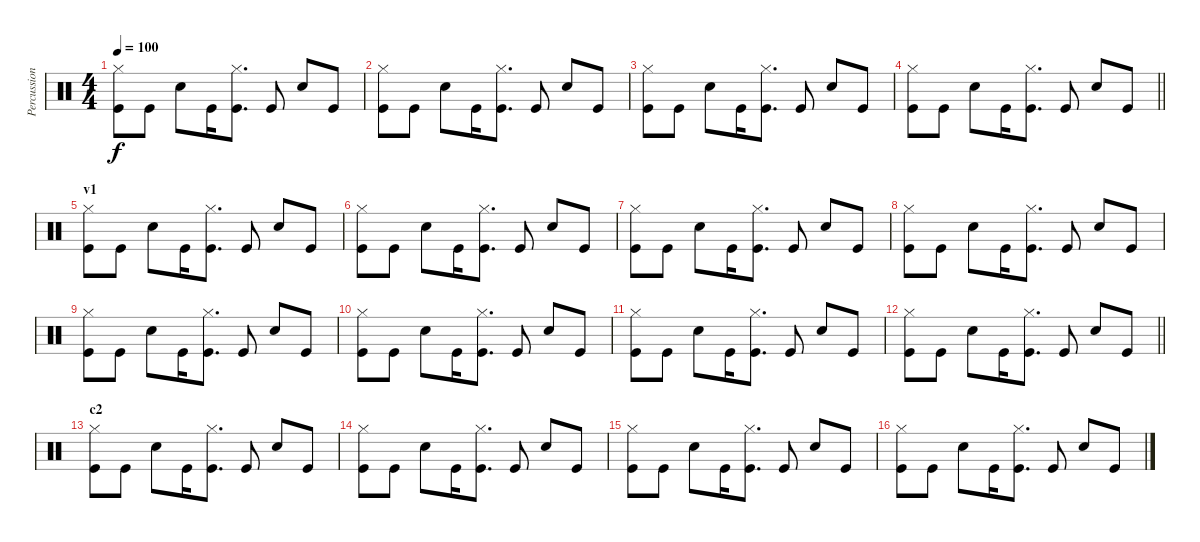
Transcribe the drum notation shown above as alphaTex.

\track ("Percussion" "Percussion") {instrument percussion}
\staff {score}
\articulation defaults
\ts (4 4)
\tempo 100
\clef neutral
\ks c
("Hi-Hat (closed)" "Kick (hit)").8{dy f} "Kick (hit)".8 "Snare (hit) 2".8 "Kick (hit)".16 ("Hi-Hat (closed)" "Kick (hit)").8{d} "Kick (hit)".8 "Snare (hit) 2".8 "Kick (hit)".8 |
("Hi-Hat (closed)" "Kick (hit)").8 "Kick (hit)".8 "Snare (hit) 2".8 "Kick (hit)".16 ("Hi-Hat (closed)" "Kick (hit)").8{d} "Kick (hit)".8 "Snare (hit) 2".8 "Kick (hit)".8 |
("Hi-Hat (closed)" "Kick (hit)").8 "Kick (hit)".8 "Snare (hit) 2".8 "Kick (hit)".16 ("Hi-Hat (closed)" "Kick (hit)").8{d} "Kick (hit)".8 "Snare (hit) 2".8 "Kick (hit)".8 |
\barLineRight lightlight
("Hi-Hat (closed)" "Kick (hit)").8 "Kick (hit)".8 "Snare (hit) 2".8 "Kick (hit)".16 ("Hi-Hat (closed)" "Kick (hit)").8{d} "Kick (hit)".8 "Snare (hit) 2".8 "Kick (hit)".8 |
\section ("" "v1")
("Hi-Hat (closed)" "Kick (hit)").8 "Kick (hit)".8 "Snare (hit) 2".8 "Kick (hit)".16 ("Hi-Hat (closed)" "Kick (hit)").8{d} "Kick (hit)".8 "Snare (hit) 2".8 "Kick (hit)".8 |
("Hi-Hat (closed)" "Kick (hit)").8 "Kick (hit)".8 "Snare (hit) 2".8 "Kick (hit)".16 ("Hi-Hat (closed)" "Kick (hit)").8{d} "Kick (hit)".8 "Snare (hit) 2".8 "Kick (hit)".8 |
("Hi-Hat (closed)" "Kick (hit)").8 "Kick (hit)".8 "Snare (hit) 2".8 "Kick (hit)".16 ("Hi-Hat (closed)" "Kick (hit)").8{d} "Kick (hit)".8 "Snare (hit) 2".8 "Kick (hit)".8 |
("Hi-Hat (closed)" "Kick (hit)").8 "Kick (hit)".8 "Snare (hit) 2".8 "Kick (hit)".16 ("Hi-Hat (closed)" "Kick (hit)").8{d} "Kick (hit)".8 "Snare (hit) 2".8 "Kick (hit)".8 |
("Hi-Hat (closed)" "Kick (hit)").8 "Kick (hit)".8 "Snare (hit) 2".8 "Kick (hit)".16 ("Hi-Hat (closed)" "Kick (hit)").8{d} "Kick (hit)".8 "Snare (hit) 2".8 "Kick (hit)".8 |
("Hi-Hat (closed)" "Kick (hit)").8 "Kick (hit)".8 "Snare (hit) 2".8 "Kick (hit)".16 ("Hi-Hat (closed)" "Kick (hit)").8{d} "Kick (hit)".8 "Snare (hit) 2".8 "Kick (hit)".8 |
("Hi-Hat (closed)" "Kick (hit)").8 "Kick (hit)".8 "Snare (hit) 2".8 "Kick (hit)".16 ("Hi-Hat (closed)" "Kick (hit)").8{d} "Kick (hit)".8 "Snare (hit) 2".8 "Kick (hit)".8 |
\barLineRight lightlight
("Hi-Hat (closed)" "Kick (hit)").8 "Kick (hit)".8 "Snare (hit) 2".8 "Kick (hit)".16 ("Hi-Hat (closed)" "Kick (hit)").8{d} "Kick (hit)".8 "Snare (hit) 2".8 "Kick (hit)".8 |
\section ("" "c2")
("Hi-Hat (closed)" "Kick (hit)").8 "Kick (hit)".8 "Snare (hit) 2".8 "Kick (hit)".16 ("Hi-Hat (closed)" "Kick (hit)").8{d} "Kick (hit)".8 "Snare (hit) 2".8 "Kick (hit)".8 |
("Hi-Hat (closed)" "Kick (hit)").8 "Kick (hit)".8 "Snare (hit) 2".8 "Kick (hit)".16 ("Hi-Hat (closed)" "Kick (hit)").8{d} "Kick (hit)".8 "Snare (hit) 2".8 "Kick (hit)".8 |
("Hi-Hat (closed)" "Kick (hit)").8 "Kick (hit)".8 "Snare (hit) 2".8 "Kick (hit)".16 ("Hi-Hat (closed)" "Kick (hit)").8{d} "Kick (hit)".8 "Snare (hit) 2".8 "Kick (hit)".8 |
("Hi-Hat (closed)" "Kick (hit)").8 "Kick (hit)".8 "Snare (hit) 2".8 "Kick (hit)".16 ("Hi-Hat (closed)" "Kick (hit)").8{d} "Kick (hit)".8 "Snare (hit) 2".8 "Kick (hit)".8
